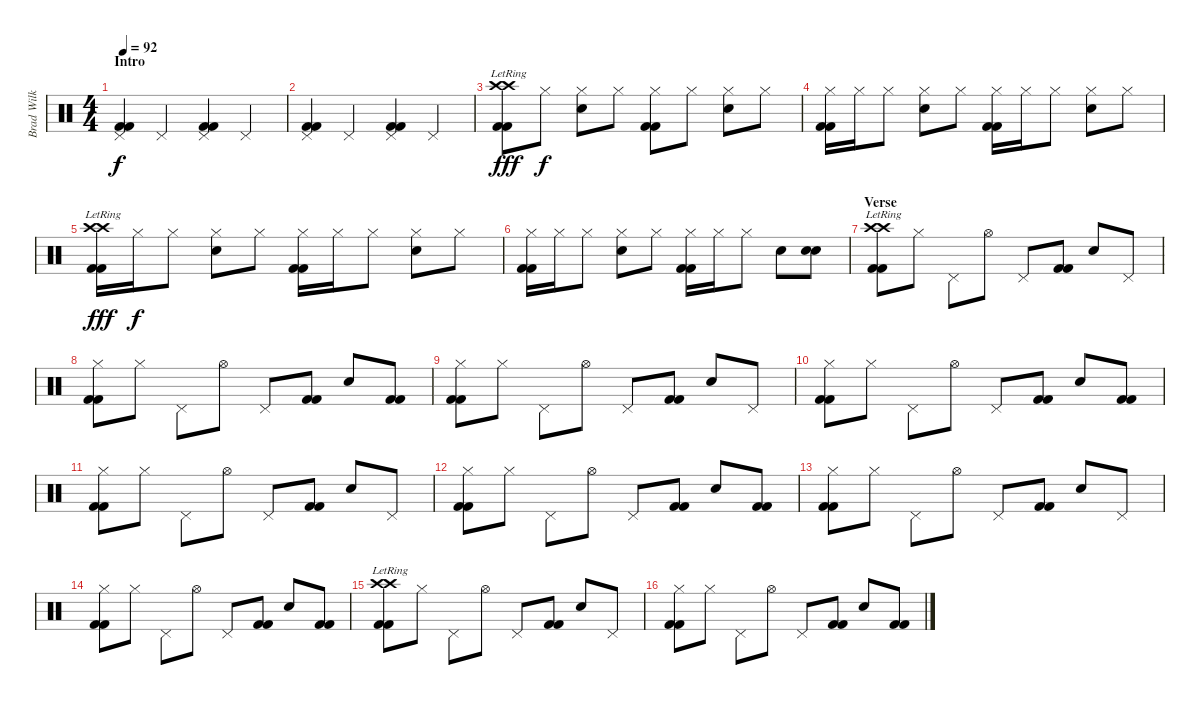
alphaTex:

\track ("Brad Wilk" "Brad Wilk") {instrument percussion}
\staff {score}
\articulation defaults
\ts (4 4)
\section ("" "Intro")
\tempo 92
\clef neutral
\ks c
("Pedal Hi-Hat (hit)" "Kick (hit) 2" "Kick (hit) 2").4{dy f} "Pedal Hi-Hat (hit)".4 ("Pedal Hi-Hat (hit)" "Kick (hit) 2" "Kick (hit) 2").4 "Pedal Hi-Hat (hit)".4 |
("Pedal Hi-Hat (hit)" "Kick (hit) 2" "Kick (hit) 2").4 "Pedal Hi-Hat (hit)".4 ("Pedal Hi-Hat (hit)" "Kick (hit) 2" "Kick (hit) 2").4 "Pedal Hi-Hat (hit)".4 |
("Crash high (hit)"{lr} "Crash high (hit)"{lr} "Kick (hit) 2" "Kick (hit) 2").8{dy fff} "Hi-Hat (closed)".8{dy f} ("Hi-Hat (closed)" "Electric Snare (hit)").8 "Hi-Hat (closed)".8 ("Hi-Hat (closed)" "Kick (hit) 2" "Kick (hit) 2").8 "Hi-Hat (closed)".8 ("Hi-Hat (closed)" "Snare (hit) 2").8 "Hi-Hat (closed)".8 |
("Hi-Hat (closed)" "Kick (hit) 2" "Kick (hit) 2").16 "Hi-Hat (closed)".16 "Hi-Hat (closed)".8 ("Hi-Hat (closed)" "Snare (hit) 2").8 "Hi-Hat (closed)".8 ("Hi-Hat (closed)" "Kick (hit) 2" "Kick (hit) 2").16 "Hi-Hat (closed)".16 "Hi-Hat (closed)".8 ("Hi-Hat (closed)" "Snare (hit) 2").8 "Hi-Hat (closed)".8 |
("Crash high (hit)"{lr} "Crash high (hit)"{lr} "Kick (hit) 2" "Kick (hit) 2").16{dy fff} "Hi-Hat (closed)".16{dy f} "Hi-Hat (closed)".8 ("Hi-Hat (closed)" "Electric Snare (hit)").8 "Hi-Hat (closed)".8 ("Hi-Hat (closed)" "Kick (hit) 2" "Kick (hit) 2").16 "Hi-Hat (closed)".16 "Hi-Hat (closed)".8 ("Hi-Hat (closed)" "Snare (hit) 2").8 "Hi-Hat (closed)".8 |
("Hi-Hat (closed)" "Kick (hit) 2" "Kick (hit) 2").16 "Hi-Hat (closed)".16 "Hi-Hat (closed)".8 ("Hi-Hat (closed)" "Snare (hit) 2").8 "Hi-Hat (closed)".8 ("Hi-Hat (closed)" "Kick (hit) 2" "Kick (hit) 2").16 "Hi-Hat (closed)".16 "Hi-Hat (closed)".8 "Electric Snare (hit)".8 ("Electric Snare (hit)" "Electric Snare (hit)").8{bd 120} |
\section ("" "Verse")
("Crash high (hit)"{lr} "Crash high (hit)"{lr} "Kick (hit) 2" "Kick (hit) 2").8 "Hi-Hat (closed)".8 "Pedal Hi-Hat (hit)".8 "Hi-Hat (open)".8 "Pedal Hi-Hat (hit)".8 ("Kick (hit) 2" "Kick (hit) 2").8 "Electric Snare (hit)".8 "Pedal Hi-Hat (hit)".8 |
("Hi-Hat (closed)" "Kick (hit) 2" "Kick (hit) 2").8 "Hi-Hat (closed)".8 "Pedal Hi-Hat (hit)".8 "Hi-Hat (open)".8 "Pedal Hi-Hat (hit)".8 ("Kick (hit) 2" "Kick (hit) 2").8 "Electric Snare (hit)".8 ("Kick (hit) 2" "Kick (hit) 2").8 |
("Hi-Hat (closed)" "Kick (hit) 2" "Kick (hit) 2").8 "Hi-Hat (closed)".8 "Pedal Hi-Hat (hit)".8 "Hi-Hat (open)".8 "Pedal Hi-Hat (hit)".8 ("Kick (hit) 2" "Kick (hit) 2").8 "Electric Snare (hit)".8 "Pedal Hi-Hat (hit)".8 |
("Hi-Hat (closed)" "Kick (hit) 2" "Kick (hit) 2").8 "Hi-Hat (closed)".8 "Pedal Hi-Hat (hit)".8 "Hi-Hat (open)".8 "Pedal Hi-Hat (hit)".8 ("Kick (hit) 2" "Kick (hit) 2").8 "Electric Snare (hit)".8 ("Kick (hit) 2" "Kick (hit) 2").8 |
("Hi-Hat (closed)" "Kick (hit) 2" "Kick (hit) 2").8 "Hi-Hat (closed)".8 "Pedal Hi-Hat (hit)".8 "Hi-Hat (open)".8 "Pedal Hi-Hat (hit)".8 ("Kick (hit) 2" "Kick (hit) 2").8 "Electric Snare (hit)".8 "Pedal Hi-Hat (hit)".8 |
("Hi-Hat (closed)" "Kick (hit) 2" "Kick (hit) 2").8 "Hi-Hat (closed)".8 "Pedal Hi-Hat (hit)".8 "Hi-Hat (open)".8 "Pedal Hi-Hat (hit)".8 ("Kick (hit) 2" "Kick (hit) 2").8 "Electric Snare (hit)".8 ("Kick (hit) 2" "Kick (hit) 2").8 |
("Hi-Hat (closed)" "Kick (hit) 2" "Kick (hit) 2").8 "Hi-Hat (closed)".8 "Pedal Hi-Hat (hit)".8 "Hi-Hat (open)".8 "Pedal Hi-Hat (hit)".8 ("Kick (hit) 2" "Kick (hit) 2").8 "Electric Snare (hit)".8 "Pedal Hi-Hat (hit)".8 |
("Hi-Hat (closed)" "Kick (hit) 2" "Kick (hit) 2").8 "Hi-Hat (closed)".8 "Pedal Hi-Hat (hit)".8 "Hi-Hat (open)".8 "Pedal Hi-Hat (hit)".8 ("Kick (hit) 2" "Kick (hit) 2").8 "Electric Snare (hit)".8 ("Kick (hit) 2" "Kick (hit) 2").8 |
("Crash high (hit)"{lr} "Crash high (hit)"{lr} "Kick (hit) 2" "Kick (hit) 2").8 "Hi-Hat (closed)".8 "Pedal Hi-Hat (hit)".8 "Hi-Hat (open)".8 "Pedal Hi-Hat (hit)".8 ("Kick (hit) 2" "Kick (hit) 2").8 "Electric Snare (hit)".8 "Pedal Hi-Hat (hit)".8 |
("Hi-Hat (closed)" "Kick (hit) 2" "Kick (hit) 2").8 "Hi-Hat (closed)".8 "Pedal Hi-Hat (hit)".8 "Hi-Hat (open)".8 "Pedal Hi-Hat (hit)".8 ("Kick (hit) 2" "Kick (hit) 2").8 "Electric Snare (hit)".8 ("Kick (hit) 2" "Kick (hit) 2").8
